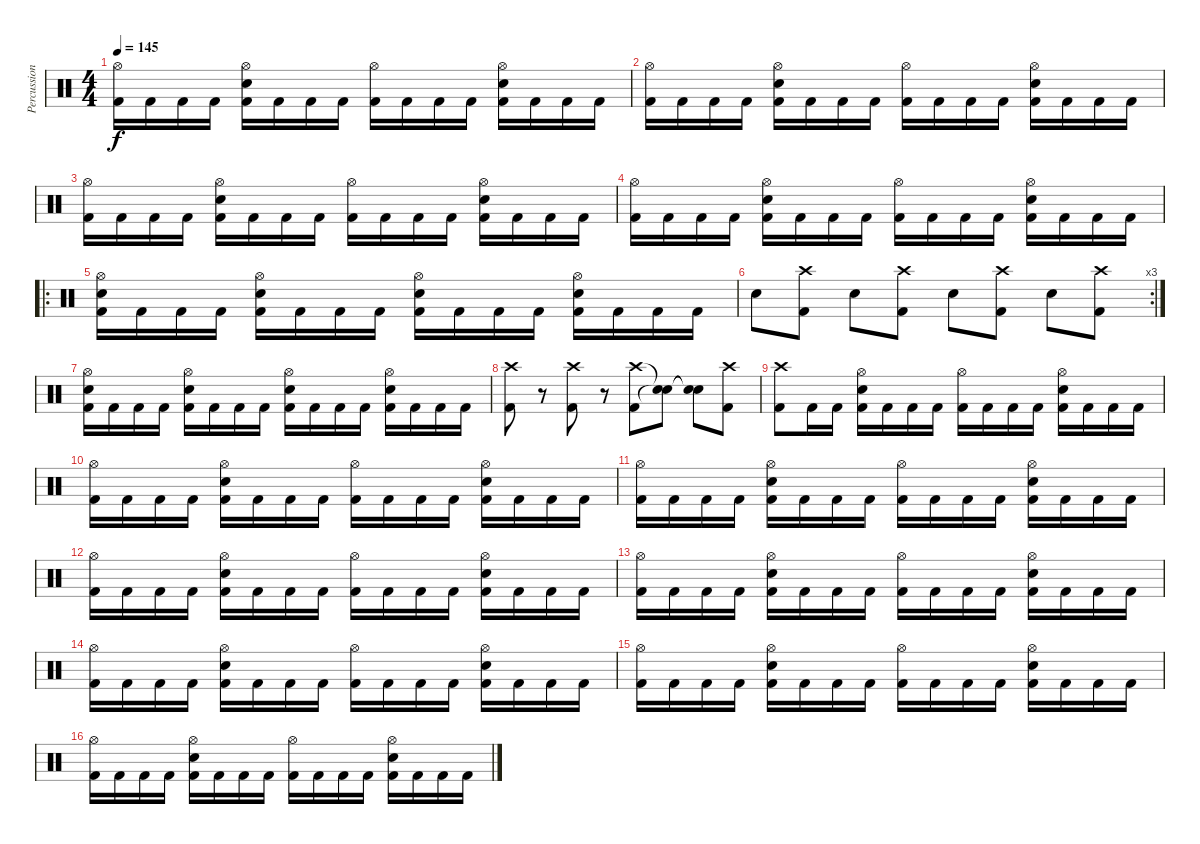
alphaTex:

\track ("Percussion" "Percussion") {instrument percussion}
\staff {score}
\articulation defaults
\ts (4 4)
\tempo 145
\clef neutral
\ks c
("Hi-Hat (open)" "Kick (hit) 2").16{dy f} "Kick (hit) 2".16 "Kick (hit) 2".16 "Kick (hit) 2".16 ("Hi-Hat (open)" "Snare (hit) 2" "Kick (hit) 2").16 "Kick (hit) 2".16 "Kick (hit) 2".16 "Kick (hit) 2".16 ("Hi-Hat (open)" "Kick (hit) 2").16 "Kick (hit) 2".16 "Kick (hit) 2".16 "Kick (hit) 2".16 ("Hi-Hat (open)" "Snare (hit) 2" "Kick (hit) 2").16 "Kick (hit) 2".16 "Kick (hit) 2".16 "Kick (hit) 2".16 |
("Hi-Hat (open)" "Kick (hit) 2").16 "Kick (hit) 2".16 "Kick (hit) 2".16 "Kick (hit) 2".16 ("Hi-Hat (open)" "Snare (hit) 2" "Kick (hit) 2").16 "Kick (hit) 2".16 "Kick (hit) 2".16 "Kick (hit) 2".16 ("Hi-Hat (open)" "Kick (hit) 2").16 "Kick (hit) 2".16 "Kick (hit) 2".16 "Kick (hit) 2".16 ("Hi-Hat (open)" "Snare (hit) 2" "Kick (hit) 2").16 "Kick (hit) 2".16 "Kick (hit) 2".16 "Kick (hit) 2".16 |
("Hi-Hat (open)" "Kick (hit) 2").16 "Kick (hit) 2".16 "Kick (hit) 2".16 "Kick (hit) 2".16 ("Hi-Hat (open)" "Snare (hit) 2" "Kick (hit) 2").16 "Kick (hit) 2".16 "Kick (hit) 2".16 "Kick (hit) 2".16 ("Hi-Hat (open)" "Kick (hit) 2").16 "Kick (hit) 2".16 "Kick (hit) 2".16 "Kick (hit) 2".16 ("Hi-Hat (open)" "Snare (hit) 2" "Kick (hit) 2").16 "Kick (hit) 2".16 "Kick (hit) 2".16 "Kick (hit) 2".16 |
("Hi-Hat (open)" "Kick (hit) 2").16 "Kick (hit) 2".16 "Kick (hit) 2".16 "Kick (hit) 2".16 ("Hi-Hat (open)" "Snare (hit) 2" "Kick (hit) 2").16 "Kick (hit) 2".16 "Kick (hit) 2".16 "Kick (hit) 2".16 ("Hi-Hat (open)" "Kick (hit) 2").16 "Kick (hit) 2".16 "Kick (hit) 2".16 "Kick (hit) 2".16 ("Hi-Hat (open)" "Snare (hit) 2" "Kick (hit) 2").16 "Kick (hit) 2".16 "Kick (hit) 2".16 "Kick (hit) 2".16 |
\ro
("Hi-Hat (open)" "Snare (hit) 2" "Kick (hit) 2").16 "Kick (hit) 2".16 "Kick (hit) 2".16 "Kick (hit) 2".16 ("Hi-Hat (open)" "Snare (hit) 2" "Kick (hit) 2").16 "Kick (hit) 2".16 "Kick (hit) 2".16 "Kick (hit) 2".16 ("Hi-Hat (open)" "Snare (hit) 2" "Kick (hit) 2").16 "Kick (hit) 2".16 "Kick (hit) 2".16 "Kick (hit) 2".16 ("Hi-Hat (open)" "Snare (hit) 2" "Kick (hit) 2").16 "Kick (hit) 2".16 "Kick (hit) 2".16 "Kick (hit) 2".16 |
\rc 3 "Snare (hit) 2".8
("Crash high (hit)" "Kick (hit) 2").8 "Snare (hit) 2".8 ("Crash high (hit)" "Kick (hit) 2").8 "Snare (hit) 2".8 ("Crash high (hit)" "Kick (hit) 2").8 "Snare (hit) 2".8 ("Crash high (hit)" "Kick (hit) 2").8 |
("Hi-Hat (open)" "Snare (hit) 2" "Kick (hit) 2").16 "Kick (hit) 2".16 "Kick (hit) 2".16 "Kick (hit) 2".16 ("Hi-Hat (open)" "Snare (hit) 2" "Kick (hit) 2").16 "Kick (hit) 2".16 "Kick (hit) 2".16 "Kick (hit) 2".16 ("Hi-Hat (open)" "Snare (hit) 2" "Kick (hit) 2").16 "Kick (hit) 2".16 "Kick (hit) 2".16 "Kick (hit) 2".16 ("Hi-Hat (open)" "Snare (hit) 2" "Kick (hit) 2").16 "Kick (hit) 2".16 "Kick (hit) 2".16 "Kick (hit) 2".16 |
("Crash high (hit)" "Kick (hit) 2").8 r.8 ("Crash high (hit)" "Kick (hit) 2").8 r.8 ("Crash high (hit)" "Kick (hit) 2").8 ("Snare (hit)"{t} "Snare (hit)"{t}).8 ("Snare (hit)"{t} "Snare (hit)"{t}).8 ("Crash high (hit)" "Kick (hit) 2").8 |
("Crash high (hit)" "Kick (hit) 2").8 "Kick (hit) 2".16 "Kick (hit) 2".16 ("Hi-Hat (open)" "Snare (hit) 2" "Kick (hit) 2").16 "Kick (hit) 2".16 "Kick (hit) 2".16 "Kick (hit) 2".16 ("Hi-Hat (open)" "Kick (hit) 2").16 "Kick (hit) 2".16 "Kick (hit) 2".16 "Kick (hit) 2".16 ("Hi-Hat (open)" "Snare (hit) 2" "Kick (hit) 2").16 "Kick (hit) 2".16 "Kick (hit) 2".16 "Kick (hit) 2".16 |
("Hi-Hat (open)" "Kick (hit) 2").16 "Kick (hit) 2".16 "Kick (hit) 2".16 "Kick (hit) 2".16 ("Hi-Hat (open)" "Snare (hit) 2" "Kick (hit) 2").16 "Kick (hit) 2".16 "Kick (hit) 2".16 "Kick (hit) 2".16 ("Hi-Hat (open)" "Kick (hit) 2").16 "Kick (hit) 2".16 "Kick (hit) 2".16 "Kick (hit) 2".16 ("Hi-Hat (open)" "Snare (hit) 2" "Kick (hit) 2").16 "Kick (hit) 2".16 "Kick (hit) 2".16 "Kick (hit) 2".16 |
("Hi-Hat (open)" "Kick (hit) 2").16 "Kick (hit) 2".16 "Kick (hit) 2".16 "Kick (hit) 2".16 ("Hi-Hat (open)" "Snare (hit) 2" "Kick (hit) 2").16 "Kick (hit) 2".16 "Kick (hit) 2".16 "Kick (hit) 2".16 ("Hi-Hat (open)" "Kick (hit) 2").16 "Kick (hit) 2".16 "Kick (hit) 2".16 "Kick (hit) 2".16 ("Hi-Hat (open)" "Snare (hit) 2" "Kick (hit) 2").16 "Kick (hit) 2".16 "Kick (hit) 2".16 "Kick (hit) 2".16 |
("Hi-Hat (open)" "Kick (hit) 2").16 "Kick (hit) 2".16 "Kick (hit) 2".16 "Kick (hit) 2".16 ("Hi-Hat (open)" "Snare (hit) 2" "Kick (hit) 2").16 "Kick (hit) 2".16 "Kick (hit) 2".16 "Kick (hit) 2".16 ("Hi-Hat (open)" "Kick (hit) 2").16 "Kick (hit) 2".16 "Kick (hit) 2".16 "Kick (hit) 2".16 ("Hi-Hat (open)" "Snare (hit) 2" "Kick (hit) 2").16 "Kick (hit) 2".16 "Kick (hit) 2".16 "Kick (hit) 2".16 |
("Hi-Hat (open)" "Kick (hit) 2").16 "Kick (hit) 2".16 "Kick (hit) 2".16 "Kick (hit) 2".16 ("Hi-Hat (open)" "Snare (hit) 2" "Kick (hit) 2").16 "Kick (hit) 2".16 "Kick (hit) 2".16 "Kick (hit) 2".16 ("Hi-Hat (open)" "Kick (hit) 2").16 "Kick (hit) 2".16 "Kick (hit) 2".16 "Kick (hit) 2".16 ("Hi-Hat (open)" "Snare (hit) 2" "Kick (hit) 2").16 "Kick (hit) 2".16 "Kick (hit) 2".16 "Kick (hit) 2".16 |
("Hi-Hat (open)" "Kick (hit) 2").16 "Kick (hit) 2".16 "Kick (hit) 2".16 "Kick (hit) 2".16 ("Hi-Hat (open)" "Snare (hit) 2" "Kick (hit) 2").16 "Kick (hit) 2".16 "Kick (hit) 2".16 "Kick (hit) 2".16 ("Hi-Hat (open)" "Kick (hit) 2").16 "Kick (hit) 2".16 "Kick (hit) 2".16 "Kick (hit) 2".16 ("Hi-Hat (open)" "Snare (hit) 2" "Kick (hit) 2").16 "Kick (hit) 2".16 "Kick (hit) 2".16 "Kick (hit) 2".16 |
("Hi-Hat (open)" "Kick (hit) 2").16 "Kick (hit) 2".16 "Kick (hit) 2".16 "Kick (hit) 2".16 ("Hi-Hat (open)" "Snare (hit) 2" "Kick (hit) 2").16 "Kick (hit) 2".16 "Kick (hit) 2".16 "Kick (hit) 2".16 ("Hi-Hat (open)" "Kick (hit) 2").16 "Kick (hit) 2".16 "Kick (hit) 2".16 "Kick (hit) 2".16 ("Hi-Hat (open)" "Snare (hit) 2" "Kick (hit) 2").16 "Kick (hit) 2".16 "Kick (hit) 2".16 "Kick (hit) 2".16 |
("Hi-Hat (open)" "Kick (hit) 2").16 "Kick (hit) 2".16 "Kick (hit) 2".16 "Kick (hit) 2".16 ("Hi-Hat (open)" "Snare (hit) 2" "Kick (hit) 2").16 "Kick (hit) 2".16 "Kick (hit) 2".16 "Kick (hit) 2".16 ("Hi-Hat (open)" "Kick (hit) 2").16 "Kick (hit) 2".16 "Kick (hit) 2".16 "Kick (hit) 2".16 ("Hi-Hat (open)" "Snare (hit) 2" "Kick (hit) 2").16 "Kick (hit) 2".16 "Kick (hit) 2".16 "Kick (hit) 2".16
